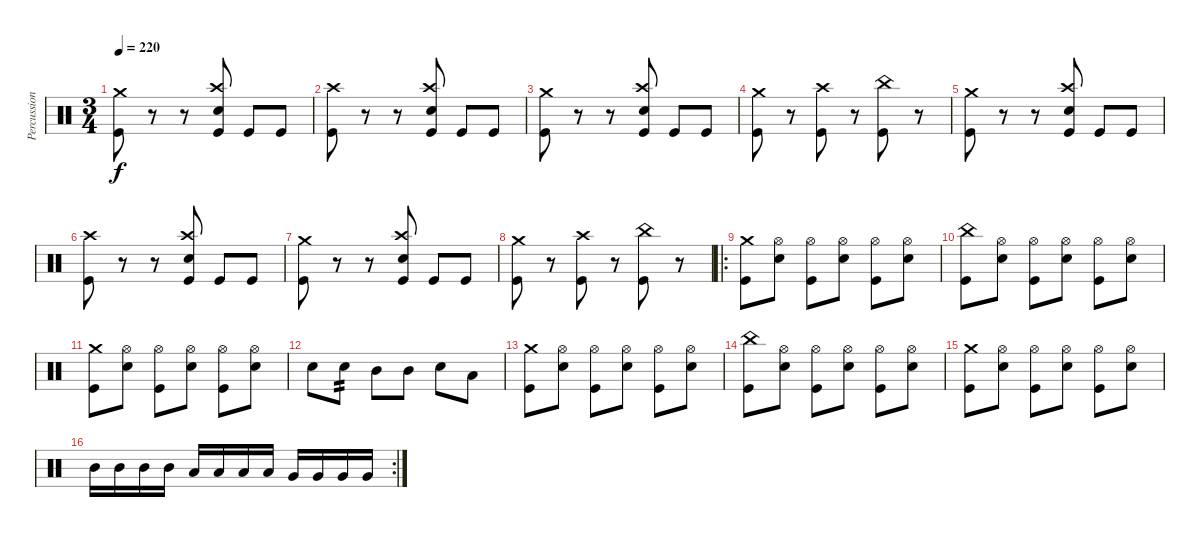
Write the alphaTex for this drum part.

\track ("Percussion" "Percussion") {instrument percussion}
\staff {score}
\articulation defaults
\ts (3 4)
\tempo 220
\clef neutral
\ks c
("Crash medium (hit)" "Kick (hit)").8{dy f} r.8 r.8 ("Crash high (hit)" "Electric Snare (hit)" "Kick (hit)").8 "Kick (hit)".8 "Kick (hit)".8 |
("Crash high (hit)" "Kick (hit)").8 r.8 r.8 ("Crash high (hit)" "Electric Snare (hit)" "Kick (hit)").8 "Kick (hit)".8 "Kick (hit)".8 |
("Crash medium (hit)" "Kick (hit)").8 r.8 r.8 ("Crash high (hit)" "Electric Snare (hit)" "Kick (hit)").8 "Kick (hit)".8 "Kick (hit)".8 |
("Crash medium (hit)" "Kick (hit)").8 r.8 ("Crash high (hit)" "Kick (hit)").8 r.8 ("China (hit)" "Kick (hit)").8 r.8 |
("Crash medium (hit)" "Kick (hit)").8 r.8 r.8 ("Crash high (hit)" "Electric Snare (hit)" "Kick (hit)").8 "Kick (hit)".8 "Kick (hit)".8 |
("Crash high (hit)" "Kick (hit)").8 r.8 r.8 ("Crash high (hit)" "Electric Snare (hit)" "Kick (hit)").8 "Kick (hit)".8 "Kick (hit)".8 |
("Crash medium (hit)" "Kick (hit)").8 r.8 r.8 ("Crash high (hit)" "Electric Snare (hit)" "Kick (hit)").8 "Kick (hit)".8 "Kick (hit)".8 |
("Crash medium (hit)" "Kick (hit)").8 r.8 ("Crash high (hit)" "Kick (hit)").8 r.8 ("China (hit)" "Kick (hit)").8 r.8 |
\ro
("Crash medium (hit)" "Kick (hit)").8 ("Hi-Hat (open)" "Electric Snare (hit)").8 ("Hi-Hat (open)" "Kick (hit)").8 ("Hi-Hat (open)" "Electric Snare (hit)").8 ("Hi-Hat (open)" "Kick (hit)").8 ("Hi-Hat (open)" "Electric Snare (hit)").8 |
("China (hit)" "Kick (hit)").8 ("Hi-Hat (open)" "Electric Snare (hit)").8 ("Hi-Hat (open)" "Kick (hit)").8 ("Hi-Hat (open)" "Electric Snare (hit)").8 ("Hi-Hat (open)" "Kick (hit)").8 ("Hi-Hat (open)" "Electric Snare (hit)").8 |
("Crash medium (hit)" "Kick (hit)").8 ("Hi-Hat (open)" "Electric Snare (hit)").8 ("Hi-Hat (open)" "Kick (hit)").8 ("Hi-Hat (open)" "Electric Snare (hit)").8 ("Hi-Hat (open)" "Kick (hit)").8 ("Hi-Hat (open)" "Electric Snare (hit)").8 |
"Electric Snare (hit)".8 "Electric Snare (hit)".8{tp 2} "Mid Tom (hit)".8 "Mid Tom (hit)".8 "Electric Snare (hit)".8 "Low Tom (hit)".8 |
("Crash medium (hit)" "Kick (hit)").8 ("Hi-Hat (open)" "Electric Snare (hit)").8 ("Hi-Hat (open)" "Kick (hit)").8 ("Hi-Hat (open)" "Electric Snare (hit)").8 ("Hi-Hat (open)" "Kick (hit)").8 ("Hi-Hat (open)" "Electric Snare (hit)").8 |
("China (hit)" "Kick (hit)").8 ("Hi-Hat (open)" "Electric Snare (hit)").8 ("Hi-Hat (open)" "Kick (hit)").8 ("Hi-Hat (open)" "Electric Snare (hit)").8 ("Hi-Hat (open)" "Kick (hit)").8 ("Hi-Hat (open)" "Electric Snare (hit)").8 |
("Crash medium (hit)" "Kick (hit)").8 ("Hi-Hat (open)" "Electric Snare (hit)").8 ("Hi-Hat (open)" "Kick (hit)").8 ("Hi-Hat (open)" "Electric Snare (hit)").8 ("Hi-Hat (open)" "Kick (hit)").8 ("Hi-Hat (open)" "Electric Snare (hit)").8 |
\rc 2 "Mid Tom (hit)".16 "Mid Tom (hit)".16 "Mid Tom (hit)".16 "Mid Tom (hit)".16 "Low Tom (hit)".16 "Low Tom (hit)".16 "Low Tom (hit)".16 "Low Tom (hit)".16 "Very Low Tom (hit)".16 "Very Low Tom (hit)".16 "Very Low Tom (hit)".16 "Very Low Tom (hit)".16
